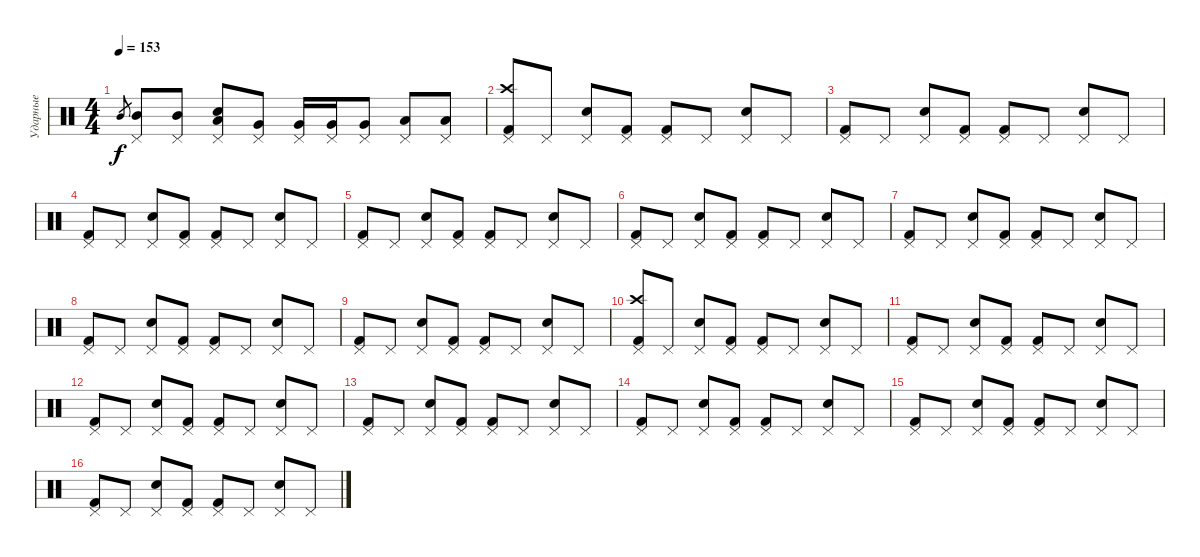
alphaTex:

\track ("Ударные" "Ударные") {instrument percussion}
\staff {score}
\articulation defaults
\ts (4 4)
\tempo 153
\clef neutral
\ks c "Mid Tom (hit)".8{gr dy f}
("Pedal Hi-Hat (hit)" "Mid Tom (hit)").8 ("Pedal Hi-Hat (hit)" "Mid Tom (hit)").8 ("Electric Snare (hit)" "Pedal Hi-Hat (hit)" "Low Tom (hit)").8 ("Pedal Hi-Hat (hit)" "Very Low Tom (hit)").8 ("Pedal Hi-Hat (hit)" "Very Low Tom (hit)").16 ("Pedal Hi-Hat (hit)" "Very Low Tom (hit)").16 ("Pedal Hi-Hat (hit)" "Very Low Tom (hit)").8 ("Pedal Hi-Hat (hit)" "Low Tom (hit)").8 ("Pedal Hi-Hat (hit)" "Low Floor Tom (hit)").8 |
("Crash high (hit)" "Pedal Hi-Hat (hit)" "Kick (hit) 2").8 "Pedal Hi-Hat (hit)".8 ("Electric Snare (hit)" "Pedal Hi-Hat (hit)").8 ("Pedal Hi-Hat (hit)" "Kick (hit) 2").8 ("Pedal Hi-Hat (hit)" "Kick (hit) 2").8 "Pedal Hi-Hat (hit)".8 ("Electric Snare (hit)" "Pedal Hi-Hat (hit)").8 "Pedal Hi-Hat (hit)".8 |
("Pedal Hi-Hat (hit)" "Kick (hit) 2").8 "Pedal Hi-Hat (hit)".8 ("Electric Snare (hit)" "Pedal Hi-Hat (hit)").8 ("Pedal Hi-Hat (hit)" "Kick (hit) 2").8 ("Pedal Hi-Hat (hit)" "Kick (hit) 2").8 "Pedal Hi-Hat (hit)".8 ("Electric Snare (hit)" "Pedal Hi-Hat (hit)").8 "Pedal Hi-Hat (hit)".8 |
("Pedal Hi-Hat (hit)" "Kick (hit) 2").8 "Pedal Hi-Hat (hit)".8 ("Electric Snare (hit)" "Pedal Hi-Hat (hit)").8 ("Pedal Hi-Hat (hit)" "Kick (hit) 2").8 ("Pedal Hi-Hat (hit)" "Kick (hit) 2").8 "Pedal Hi-Hat (hit)".8 ("Electric Snare (hit)" "Pedal Hi-Hat (hit)").8 "Pedal Hi-Hat (hit)".8 |
("Pedal Hi-Hat (hit)" "Kick (hit) 2").8 "Pedal Hi-Hat (hit)".8 ("Electric Snare (hit)" "Pedal Hi-Hat (hit)").8 ("Pedal Hi-Hat (hit)" "Kick (hit) 2").8 ("Pedal Hi-Hat (hit)" "Kick (hit) 2").8 "Pedal Hi-Hat (hit)".8 ("Electric Snare (hit)" "Pedal Hi-Hat (hit)").8 "Pedal Hi-Hat (hit)".8 |
("Pedal Hi-Hat (hit)" "Kick (hit) 2").8 "Pedal Hi-Hat (hit)".8 ("Electric Snare (hit)" "Pedal Hi-Hat (hit)").8 ("Pedal Hi-Hat (hit)" "Kick (hit) 2").8 ("Pedal Hi-Hat (hit)" "Kick (hit) 2").8 "Pedal Hi-Hat (hit)".8 ("Electric Snare (hit)" "Pedal Hi-Hat (hit)").8 "Pedal Hi-Hat (hit)".8 |
("Pedal Hi-Hat (hit)" "Kick (hit) 2").8 "Pedal Hi-Hat (hit)".8 ("Electric Snare (hit)" "Pedal Hi-Hat (hit)").8 ("Pedal Hi-Hat (hit)" "Kick (hit) 2").8 ("Pedal Hi-Hat (hit)" "Kick (hit) 2").8 "Pedal Hi-Hat (hit)".8 ("Electric Snare (hit)" "Pedal Hi-Hat (hit)").8 "Pedal Hi-Hat (hit)".8 |
("Pedal Hi-Hat (hit)" "Kick (hit) 2").8 "Pedal Hi-Hat (hit)".8 ("Electric Snare (hit)" "Pedal Hi-Hat (hit)").8 ("Pedal Hi-Hat (hit)" "Kick (hit) 2").8 ("Pedal Hi-Hat (hit)" "Kick (hit) 2").8 "Pedal Hi-Hat (hit)".8 ("Electric Snare (hit)" "Pedal Hi-Hat (hit)").8 "Pedal Hi-Hat (hit)".8 |
("Pedal Hi-Hat (hit)" "Kick (hit) 2").8 "Pedal Hi-Hat (hit)".8 ("Electric Snare (hit)" "Pedal Hi-Hat (hit)").8 ("Pedal Hi-Hat (hit)" "Kick (hit) 2").8 ("Pedal Hi-Hat (hit)" "Kick (hit) 2").8 "Pedal Hi-Hat (hit)".8 ("Electric Snare (hit)" "Pedal Hi-Hat (hit)").8 "Pedal Hi-Hat (hit)".8 |
("Crash high (hit)" "Pedal Hi-Hat (hit)" "Kick (hit) 2").8 "Pedal Hi-Hat (hit)".8 ("Electric Snare (hit)" "Pedal Hi-Hat (hit)").8 ("Pedal Hi-Hat (hit)" "Kick (hit) 2").8 ("Pedal Hi-Hat (hit)" "Kick (hit) 2").8 "Pedal Hi-Hat (hit)".8 ("Electric Snare (hit)" "Pedal Hi-Hat (hit)").8 "Pedal Hi-Hat (hit)".8 |
("Pedal Hi-Hat (hit)" "Kick (hit) 2").8 "Pedal Hi-Hat (hit)".8 ("Electric Snare (hit)" "Pedal Hi-Hat (hit)").8 ("Pedal Hi-Hat (hit)" "Kick (hit) 2").8 ("Pedal Hi-Hat (hit)" "Kick (hit) 2").8 "Pedal Hi-Hat (hit)".8 ("Electric Snare (hit)" "Pedal Hi-Hat (hit)").8 "Pedal Hi-Hat (hit)".8 |
("Pedal Hi-Hat (hit)" "Kick (hit) 2").8 "Pedal Hi-Hat (hit)".8 ("Electric Snare (hit)" "Pedal Hi-Hat (hit)").8 ("Pedal Hi-Hat (hit)" "Kick (hit) 2").8 ("Pedal Hi-Hat (hit)" "Kick (hit) 2").8 "Pedal Hi-Hat (hit)".8 ("Electric Snare (hit)" "Pedal Hi-Hat (hit)").8 "Pedal Hi-Hat (hit)".8 |
("Pedal Hi-Hat (hit)" "Kick (hit) 2").8 "Pedal Hi-Hat (hit)".8 ("Electric Snare (hit)" "Pedal Hi-Hat (hit)").8 ("Pedal Hi-Hat (hit)" "Kick (hit) 2").8 ("Pedal Hi-Hat (hit)" "Kick (hit) 2").8 "Pedal Hi-Hat (hit)".8 ("Electric Snare (hit)" "Pedal Hi-Hat (hit)").8 "Pedal Hi-Hat (hit)".8 |
("Pedal Hi-Hat (hit)" "Kick (hit) 2").8 "Pedal Hi-Hat (hit)".8 ("Electric Snare (hit)" "Pedal Hi-Hat (hit)").8 ("Pedal Hi-Hat (hit)" "Kick (hit) 2").8 ("Pedal Hi-Hat (hit)" "Kick (hit) 2").8 "Pedal Hi-Hat (hit)".8 ("Electric Snare (hit)" "Pedal Hi-Hat (hit)").8 "Pedal Hi-Hat (hit)".8 |
("Pedal Hi-Hat (hit)" "Kick (hit) 2").8 "Pedal Hi-Hat (hit)".8 ("Electric Snare (hit)" "Pedal Hi-Hat (hit)").8 ("Pedal Hi-Hat (hit)" "Kick (hit) 2").8 ("Pedal Hi-Hat (hit)" "Kick (hit) 2").8 "Pedal Hi-Hat (hit)".8 ("Electric Snare (hit)" "Pedal Hi-Hat (hit)").8 "Pedal Hi-Hat (hit)".8 |
("Pedal Hi-Hat (hit)" "Kick (hit) 2").8 "Pedal Hi-Hat (hit)".8 ("Electric Snare (hit)" "Pedal Hi-Hat (hit)").8 ("Pedal Hi-Hat (hit)" "Kick (hit) 2").8 ("Pedal Hi-Hat (hit)" "Kick (hit) 2").8 "Pedal Hi-Hat (hit)".8 ("Electric Snare (hit)" "Pedal Hi-Hat (hit)").8 "Pedal Hi-Hat (hit)".8
